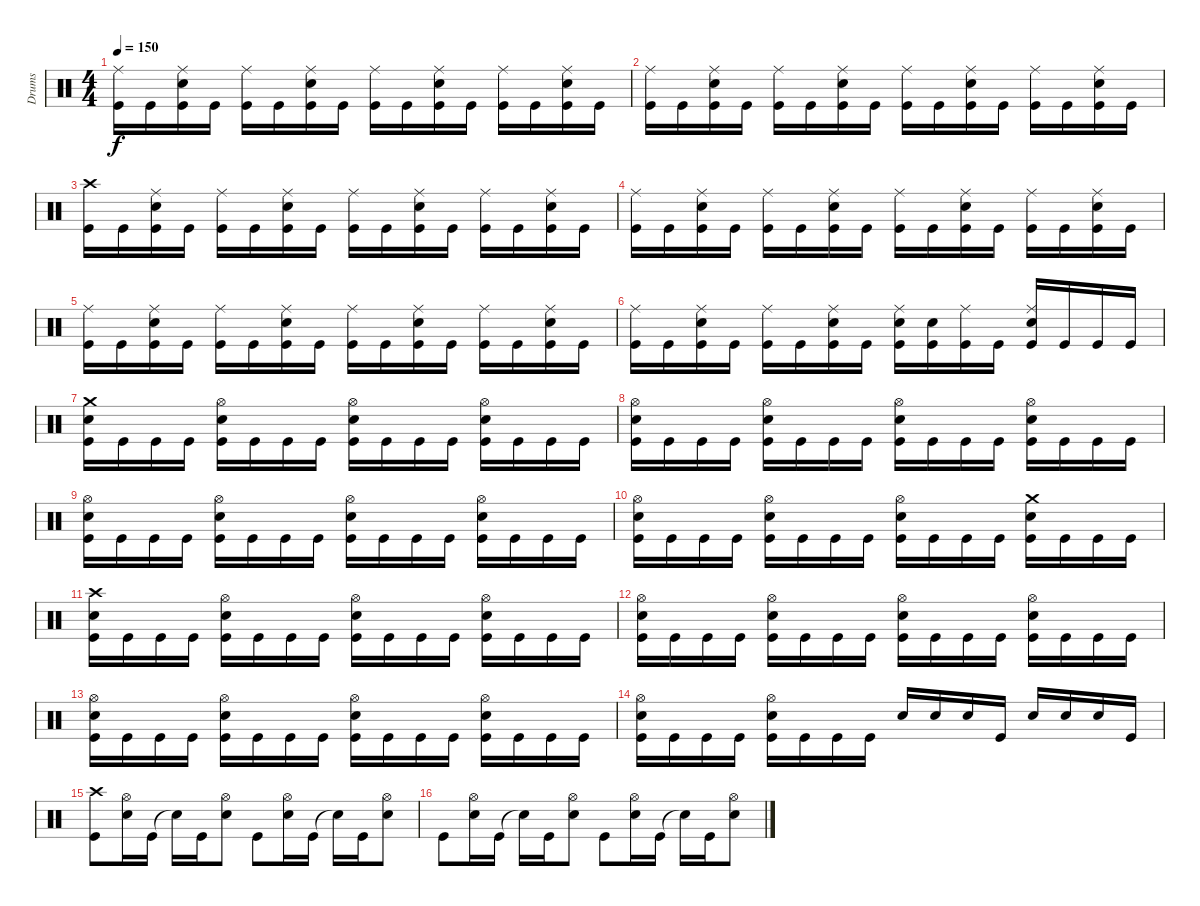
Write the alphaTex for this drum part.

\track ("Drums" "Drums") {instrument percussion}
\staff {score}
\articulation defaults
\ts (4 4)
\tempo 150
\clef neutral
\ks c
("Kick (hit)" "Ride (middle)").16{dy f} "Kick (hit)".16 ("Kick (hit)" "Snare (hit) 2" "Ride (middle)").16 "Kick (hit)".16 ("Kick (hit)" "Ride (middle)").16 "Kick (hit)".16 ("Kick (hit)" "Snare (hit) 2" "Ride (middle)").16 "Kick (hit)".16 ("Kick (hit)" "Ride (middle)").16 "Kick (hit)".16 ("Kick (hit)" "Snare (hit) 2" "Ride (middle)").16 "Kick (hit)".16 ("Kick (hit)" "Ride (middle)").16 "Kick (hit)".16 ("Kick (hit)" "Snare (hit) 2" "Ride (middle)").16 "Kick (hit)".16 |
("Kick (hit)" "Ride (middle)").16 "Kick (hit)".16 ("Kick (hit)" "Snare (hit) 2" "Ride (middle)").16 "Kick (hit)".16 ("Kick (hit)" "Ride (middle)").16 "Kick (hit)".16 ("Kick (hit)" "Snare (hit) 2" "Ride (middle)").16 "Kick (hit)".16 ("Kick (hit)" "Ride (middle)").16 "Kick (hit)".16 ("Kick (hit)" "Snare (hit) 2" "Ride (middle)").16 "Kick (hit)".16 ("Kick (hit)" "Ride (middle)").16 "Kick (hit)".16 ("Kick (hit)" "Snare (hit) 2" "Ride (middle)").16 "Kick (hit)".16 |
("Kick (hit)" "Crash high (hit)").16 "Kick (hit)".16 ("Kick (hit)" "Snare (hit) 2" "Ride (middle)").16 "Kick (hit)".16 ("Kick (hit)" "Ride (middle)").16 "Kick (hit)".16 ("Kick (hit)" "Snare (hit) 2" "Ride (middle)").16 "Kick (hit)".16 ("Kick (hit)" "Ride (middle)").16 "Kick (hit)".16 ("Kick (hit)" "Snare (hit) 2" "Ride (middle)").16 "Kick (hit)".16 ("Kick (hit)" "Ride (middle)").16 "Kick (hit)".16 ("Kick (hit)" "Snare (hit) 2" "Ride (middle)").16 "Kick (hit)".16 |
("Kick (hit)" "Ride (middle)").16 "Kick (hit)".16 ("Kick (hit)" "Snare (hit) 2" "Ride (middle)").16 "Kick (hit)".16 ("Kick (hit)" "Ride (middle)").16 "Kick (hit)".16 ("Kick (hit)" "Snare (hit) 2" "Ride (middle)").16 "Kick (hit)".16 ("Kick (hit)" "Ride (middle)").16 "Kick (hit)".16 ("Kick (hit)" "Snare (hit) 2" "Ride (middle)").16 "Kick (hit)".16 ("Kick (hit)" "Ride (middle)").16 "Kick (hit)".16 ("Kick (hit)" "Snare (hit) 2" "Ride (middle)").16 "Kick (hit)".16 |
("Kick (hit)" "Ride (middle)").16 "Kick (hit)".16 ("Kick (hit)" "Snare (hit) 2" "Ride (middle)").16 "Kick (hit)".16 ("Kick (hit)" "Ride (middle)").16 "Kick (hit)".16 ("Kick (hit)" "Snare (hit) 2" "Ride (middle)").16 "Kick (hit)".16 ("Kick (hit)" "Ride (middle)").16 "Kick (hit)".16 ("Kick (hit)" "Snare (hit) 2" "Ride (middle)").16 "Kick (hit)".16 ("Kick (hit)" "Ride (middle)").16 "Kick (hit)".16 ("Kick (hit)" "Snare (hit) 2" "Ride (middle)").16 "Kick (hit)".16 |
("Kick (hit)" "Ride (middle)").16 "Kick (hit)".16 ("Kick (hit)" "Snare (hit) 2" "Ride (middle)").16 "Kick (hit)".16 ("Kick (hit)" "Ride (middle)").16 "Kick (hit)".16 ("Kick (hit)" "Snare (hit) 2" "Ride (middle)").16 "Kick (hit)".16 ("Kick (hit)" "Snare (hit) 2" "Ride (middle)").16 ("Kick (hit)" "Snare (hit) 2").16 ("Kick (hit)" "Ride (middle)").16 "Kick (hit)".16 ("Kick (hit)" "Snare (hit) 2" "Ride (middle)").16 "Kick (hit)".16 "Kick (hit)".16 "Kick (hit)".16 |
("Kick (hit)" "Snare (hit) 2" "Crash medium (hit)").16 "Kick (hit)".16 "Kick (hit)".16 "Kick (hit)".16 ("Kick (hit)" "Snare (hit) 2" "Hi-Hat (open)").16 "Kick (hit)".16 "Kick (hit)".16 "Kick (hit)".16 ("Kick (hit)" "Snare (hit) 2" "Hi-Hat (open)").16 "Kick (hit)".16 "Kick (hit)".16 "Kick (hit)".16 ("Kick (hit)" "Snare (hit) 2" "Hi-Hat (open)").16 "Kick (hit)".16 "Kick (hit)".16 "Kick (hit)".16 |
("Kick (hit)" "Snare (hit) 2" "Hi-Hat (open)").16 "Kick (hit)".16 "Kick (hit)".16 "Kick (hit)".16 ("Kick (hit)" "Snare (hit) 2" "Hi-Hat (open)").16 "Kick (hit)".16 "Kick (hit)".16 "Kick (hit)".16 ("Kick (hit)" "Snare (hit) 2" "Hi-Hat (open)").16 "Kick (hit)".16 "Kick (hit)".16 "Kick (hit)".16 ("Kick (hit)" "Snare (hit) 2" "Hi-Hat (open)").16 "Kick (hit)".16 "Kick (hit)".16 "Kick (hit)".16 |
("Kick (hit)" "Snare (hit) 2" "Hi-Hat (open)").16 "Kick (hit)".16 "Kick (hit)".16 "Kick (hit)".16 ("Kick (hit)" "Snare (hit) 2" "Hi-Hat (open)").16 "Kick (hit)".16 "Kick (hit)".16 "Kick (hit)".16 ("Kick (hit)" "Snare (hit) 2" "Hi-Hat (open)").16 "Kick (hit)".16 "Kick (hit)".16 "Kick (hit)".16 ("Kick (hit)" "Snare (hit) 2" "Hi-Hat (open)").16 "Kick (hit)".16 "Kick (hit)".16 "Kick (hit)".16 |
("Kick (hit)" "Snare (hit) 2" "Hi-Hat (open)").16 "Kick (hit)".16 "Kick (hit)".16 "Kick (hit)".16 ("Kick (hit)" "Snare (hit) 2" "Hi-Hat (open)").16 "Kick (hit)".16 "Kick (hit)".16 "Kick (hit)".16 ("Kick (hit)" "Snare (hit) 2" "Hi-Hat (open)").16 "Kick (hit)".16 "Kick (hit)".16 "Kick (hit)".16 ("Kick (hit)" "Snare (hit) 2" "Crash medium (hit)").16 "Kick (hit)".16 "Kick (hit)".16 "Kick (hit)".16 |
("Kick (hit)" "Snare (hit) 2" "Crash high (hit)").16 "Kick (hit)".16 "Kick (hit)".16 "Kick (hit)".16 ("Kick (hit)" "Snare (hit) 2" "Hi-Hat (open)").16 "Kick (hit)".16 "Kick (hit)".16 "Kick (hit)".16 ("Kick (hit)" "Snare (hit) 2" "Hi-Hat (open)").16 "Kick (hit)".16 "Kick (hit)".16 "Kick (hit)".16 ("Kick (hit)" "Snare (hit) 2" "Hi-Hat (open)").16 "Kick (hit)".16 "Kick (hit)".16 "Kick (hit)".16 |
("Kick (hit)" "Snare (hit) 2" "Hi-Hat (open)").16 "Kick (hit)".16 "Kick (hit)".16 "Kick (hit)".16 ("Kick (hit)" "Snare (hit) 2" "Hi-Hat (open)").16 "Kick (hit)".16 "Kick (hit)".16 "Kick (hit)".16 ("Kick (hit)" "Snare (hit) 2" "Hi-Hat (open)").16 "Kick (hit)".16 "Kick (hit)".16 "Kick (hit)".16 ("Kick (hit)" "Snare (hit) 2" "Hi-Hat (open)").16 "Kick (hit)".16 "Kick (hit)".16 "Kick (hit)".16 |
("Kick (hit)" "Snare (hit) 2" "Hi-Hat (open)").16 "Kick (hit)".16 "Kick (hit)".16 "Kick (hit)".16 ("Kick (hit)" "Snare (hit) 2" "Hi-Hat (open)").16 "Kick (hit)".16 "Kick (hit)".16 "Kick (hit)".16 ("Kick (hit)" "Snare (hit) 2" "Hi-Hat (open)").16 "Kick (hit)".16 "Kick (hit)".16 "Kick (hit)".16 ("Kick (hit)" "Snare (hit) 2" "Hi-Hat (open)").16 "Kick (hit)".16 "Kick (hit)".16 "Kick (hit)".16 |
("Kick (hit)" "Snare (hit) 2" "Hi-Hat (open)").16 "Kick (hit)".16 "Kick (hit)".16 "Kick (hit)".16 ("Kick (hit)" "Snare (hit) 2" "Hi-Hat (open)").16 "Kick (hit)".16 "Kick (hit)".16 "Kick (hit)".16 "Snare (hit) 2".16 "Snare (hit) 2".16 "Snare (hit) 2".16 "Kick (hit)".16 "Snare (hit) 2".16 "Snare (hit) 2".16 "Snare (hit) 2".16 "Kick (hit)".16 |
("Kick (hit)" "Crash high (hit)").8 ("Snare (hit) 2" "Hi-Hat (open)").16 "Kick (hit)".16 "Snare (hit)"{t}.16 "Kick (hit)".16 ("Snare (hit) 2" "Hi-Hat (open)").8 "Kick (hit)".8 ("Snare (hit) 2" "Hi-Hat (open)").16 "Kick (hit)".16 "Snare (hit)"{t}.16 "Kick (hit)".16 ("Snare (hit) 2" "Hi-Hat (open)").8 |
"Kick (hit)".8 ("Snare (hit) 2" "Hi-Hat (open)").16 "Kick (hit)".16 "Snare (hit)"{t}.16 "Kick (hit)".16 ("Snare (hit) 2" "Hi-Hat (open)").8 "Kick (hit)".8 ("Snare (hit) 2" "Hi-Hat (open)").16 "Kick (hit)".16 "Snare (hit)"{t}.16 "Kick (hit)".16 ("Snare (hit) 2" "Hi-Hat (open)").8
